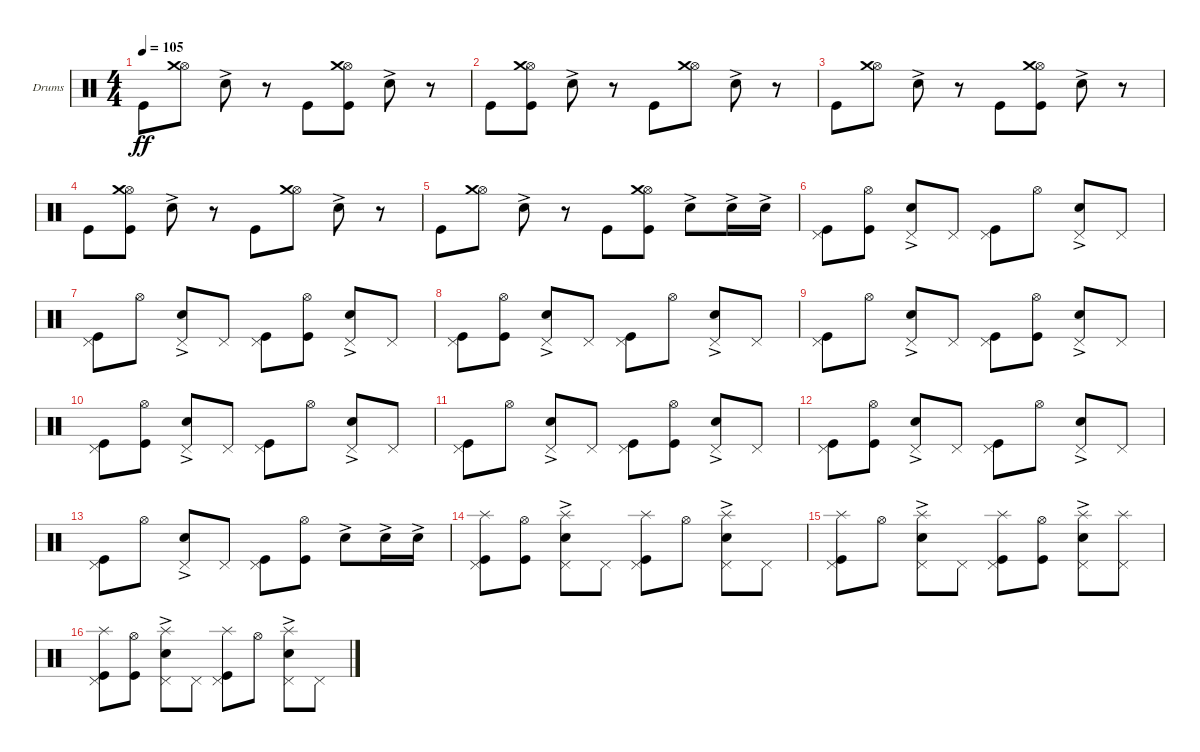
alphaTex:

\bracketExtendMode groupsimilarinstruments
\firstSystemTrackNameOrientation horizontal
\otherSystemsTrackNameOrientation horizontal
\track ("Drumkit" "Drums") {instrument percussion}
\staff {score}
\articulation defaults
\ts (4 4)
\tempo 105
\clef neutral
\ks c "Kick (hit)".8{dy ff}
("Hi-Hat (open)" "Crash medium (hit)").8 "Snare (hit) 2"{ac}.8 r.8 "Kick (hit)".8 ("Kick (hit)" "Hi-Hat (open)" "Crash medium (hit)").8 "Snare (hit) 2"{ac}.8 r.8 |
"Kick (hit)".8 ("Kick (hit)" "Hi-Hat (open)" "Crash medium (hit)").8 "Snare (hit) 2"{ac}.8 r.8 "Kick (hit)".8 ("Hi-Hat (open)" "Crash medium (hit)").8 "Snare (hit) 2"{ac}.8 r.8 |
"Kick (hit)".8 ("Hi-Hat (open)" "Crash medium (hit)").8 "Snare (hit) 2"{ac}.8 r.8 "Kick (hit)".8 ("Kick (hit)" "Hi-Hat (open)" "Crash medium (hit)").8 "Snare (hit) 2"{ac}.8 r.8 |
"Kick (hit)".8 ("Kick (hit)" "Hi-Hat (open)" "Crash medium (hit)").8 "Snare (hit) 2"{ac}.8 r.8 "Kick (hit)".8 ("Hi-Hat (open)" "Crash medium (hit)").8 "Snare (hit) 2"{ac}.8 r.8 |
"Kick (hit)".8 ("Hi-Hat (open)" "Crash medium (hit)").8 "Snare (hit) 2"{ac}.8 r.8 "Kick (hit)".8 ("Kick (hit)" "Hi-Hat (open)" "Crash medium (hit)").8 "Snare (hit) 2"{ac}.8 "Snare (hit) 2"{ac}.16 "Snare (hit) 2"{ac}.16 |
("Kick (hit)" "Pedal Hi-Hat (hit)").8 ("Kick (hit)" "Hi-Hat (open)").8 ("Pedal Hi-Hat (hit)" "Snare (hit) 2"{ac}).8 "Pedal Hi-Hat (hit)".8 ("Kick (hit)" "Pedal Hi-Hat (hit)").8 "Hi-Hat (open)".8 ("Pedal Hi-Hat (hit)" "Snare (hit) 2"{ac}).8 "Pedal Hi-Hat (hit)".8 |
("Kick (hit)" "Pedal Hi-Hat (hit)").8 "Hi-Hat (open)".8 ("Pedal Hi-Hat (hit)" "Snare (hit) 2"{ac}).8 "Pedal Hi-Hat (hit)".8 ("Kick (hit)" "Pedal Hi-Hat (hit)").8 ("Kick (hit)" "Hi-Hat (open)").8 ("Pedal Hi-Hat (hit)" "Snare (hit) 2"{ac}).8 "Pedal Hi-Hat (hit)".8 |
("Kick (hit)" "Pedal Hi-Hat (hit)").8 ("Kick (hit)" "Hi-Hat (open)").8 ("Pedal Hi-Hat (hit)" "Snare (hit) 2"{ac}).8 "Pedal Hi-Hat (hit)".8 ("Kick (hit)" "Pedal Hi-Hat (hit)").8 "Hi-Hat (open)".8 ("Pedal Hi-Hat (hit)" "Snare (hit) 2"{ac}).8 "Pedal Hi-Hat (hit)".8 |
("Kick (hit)" "Pedal Hi-Hat (hit)").8 "Hi-Hat (open)".8 ("Pedal Hi-Hat (hit)" "Snare (hit) 2"{ac}).8 "Pedal Hi-Hat (hit)".8 ("Kick (hit)" "Pedal Hi-Hat (hit)").8 ("Kick (hit)" "Hi-Hat (open)").8 ("Pedal Hi-Hat (hit)" "Snare (hit) 2"{ac}).8 "Pedal Hi-Hat (hit)".8 |
("Kick (hit)" "Pedal Hi-Hat (hit)").8 ("Kick (hit)" "Hi-Hat (open)").8 ("Pedal Hi-Hat (hit)" "Snare (hit) 2"{ac}).8 "Pedal Hi-Hat (hit)".8 ("Kick (hit)" "Pedal Hi-Hat (hit)").8 "Hi-Hat (open)".8 ("Pedal Hi-Hat (hit)" "Snare (hit) 2"{ac}).8 "Pedal Hi-Hat (hit)".8 |
("Kick (hit)" "Pedal Hi-Hat (hit)").8 "Hi-Hat (open)".8 ("Pedal Hi-Hat (hit)" "Snare (hit) 2"{ac}).8 "Pedal Hi-Hat (hit)".8 ("Kick (hit)" "Pedal Hi-Hat (hit)").8 ("Kick (hit)" "Hi-Hat (open)").8 ("Pedal Hi-Hat (hit)" "Snare (hit) 2"{ac}).8 "Pedal Hi-Hat (hit)".8 |
("Kick (hit)" "Pedal Hi-Hat (hit)").8 ("Kick (hit)" "Hi-Hat (open)").8 ("Pedal Hi-Hat (hit)" "Snare (hit) 2"{ac}).8 "Pedal Hi-Hat (hit)".8 ("Kick (hit)" "Pedal Hi-Hat (hit)").8 "Hi-Hat (open)".8 ("Pedal Hi-Hat (hit)" "Snare (hit) 2"{ac}).8 "Pedal Hi-Hat (hit)".8 |
("Kick (hit)" "Pedal Hi-Hat (hit)").8 "Hi-Hat (open)".8 ("Pedal Hi-Hat (hit)" "Snare (hit) 2"{ac}).8 "Pedal Hi-Hat (hit)".8 ("Kick (hit)" "Pedal Hi-Hat (hit)").8 ("Kick (hit)" "Hi-Hat (open)").8 "Snare (hit) 2"{ac}.8 "Snare (hit) 2"{ac}.16 "Snare (hit) 2"{ac}.16 |
("Kick (hit)" "Pedal Hi-Hat (hit)" "Splash (hit)").8 ("Kick (hit)" "Hi-Hat (open)").8 ("Pedal Hi-Hat (hit)" "Snare (hit) 2"{ac} "Splash (hit)").8 "Pedal Hi-Hat (hit)".8 ("Kick (hit)" "Pedal Hi-Hat (hit)" "Splash (hit)").8 "Hi-Hat (open)".8 ("Pedal Hi-Hat (hit)" "Snare (hit) 2"{ac} "Splash (hit)").8 "Pedal Hi-Hat (hit)".8 |
("Kick (hit)" "Pedal Hi-Hat (hit)" "Splash (hit)").8 "Hi-Hat (open)".8 ("Pedal Hi-Hat (hit)" "Snare (hit) 2"{ac} "Splash (hit)").8 "Pedal Hi-Hat (hit)".8 ("Kick (hit)" "Pedal Hi-Hat (hit)" "Splash (hit)").8 ("Kick (hit)" "Hi-Hat (open)").8 ("Pedal Hi-Hat (hit)" "Snare (hit) 2"{ac} "Splash (hit)").8 ("Pedal Hi-Hat (hit)" "Splash (hit)").8 |
("Kick (hit)" "Pedal Hi-Hat (hit)" "Splash (hit)").8 ("Kick (hit)" "Hi-Hat (open)").8 ("Pedal Hi-Hat (hit)" "Snare (hit) 2"{ac} "Splash (hit)").8 "Pedal Hi-Hat (hit)".8 ("Kick (hit)" "Pedal Hi-Hat (hit)" "Splash (hit)").8 "Hi-Hat (open)".8 ("Pedal Hi-Hat (hit)" "Snare (hit) 2"{ac} "Splash (hit)").8 "Pedal Hi-Hat (hit)".8
